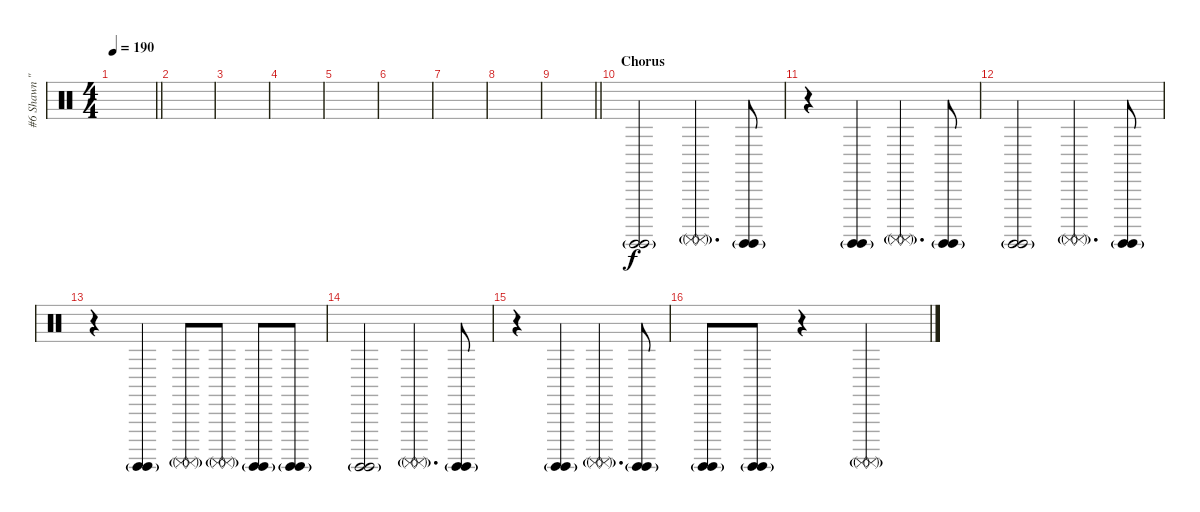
\track ("#6 Shawn \"Clown\" Crahan" "#6 Shawn \"") {instrument percussion}
\staff {score}
\articulation defaults
\ts (4 4)
\tempo 190
\clef neutral
\barLineRight lightlight
\ks c
|
|
|
|
|
|
|
|
\barLineRight lightlight
|
\section ("" "Chorus")
("Surdo (hit)"{g} "Surdo (hit)"{g}).2 ("Surdo (mute)"{g} "Surdo (mute)"{g}).4{d} ("Surdo (hit)"{g} "Surdo (hit)"{g}).8 |
r.4 ("Surdo (hit)"{g} "Surdo (hit)"{g}).4 ("Surdo (mute)"{g} "Surdo (mute)"{g}).4{d} ("Surdo (hit)"{g} "Surdo (hit)"{g}).8 |
("Surdo (hit)"{g} "Surdo (hit)"{g}).2 ("Surdo (mute)"{g} "Surdo (mute)"{g}).4{d} ("Surdo (hit)"{g} "Surdo (hit)"{g}).8 |
r.4 ("Surdo (hit)"{g} "Surdo (hit)"{g}).4 ("Surdo (mute)"{g} "Surdo (mute)"{g}).8 ("Surdo (mute)"{g} "Surdo (mute)"{g}).8 ("Surdo (hit)"{g} "Surdo (hit)"{g}).8 ("Surdo (hit)"{g} "Surdo (hit)"{g}).8 |
("Surdo (hit)"{g} "Surdo (hit)"{g}).2 ("Surdo (mute)"{g} "Surdo (mute)"{g}).4{d} ("Surdo (hit)"{g} "Surdo (hit)"{g}).8 |
r.4 ("Surdo (hit)"{g} "Surdo (hit)"{g}).4 ("Surdo (mute)"{g} "Surdo (mute)"{g}).4{d} ("Surdo (hit)"{g} "Surdo (hit)"{g}).8 |
("Surdo (hit)"{g} "Surdo (hit)"{g}).8 ("Surdo (hit)"{g} "Surdo (hit)"{g}).8 r.4 ("Surdo (mute)"{g} "Surdo (mute)"{g}).2
